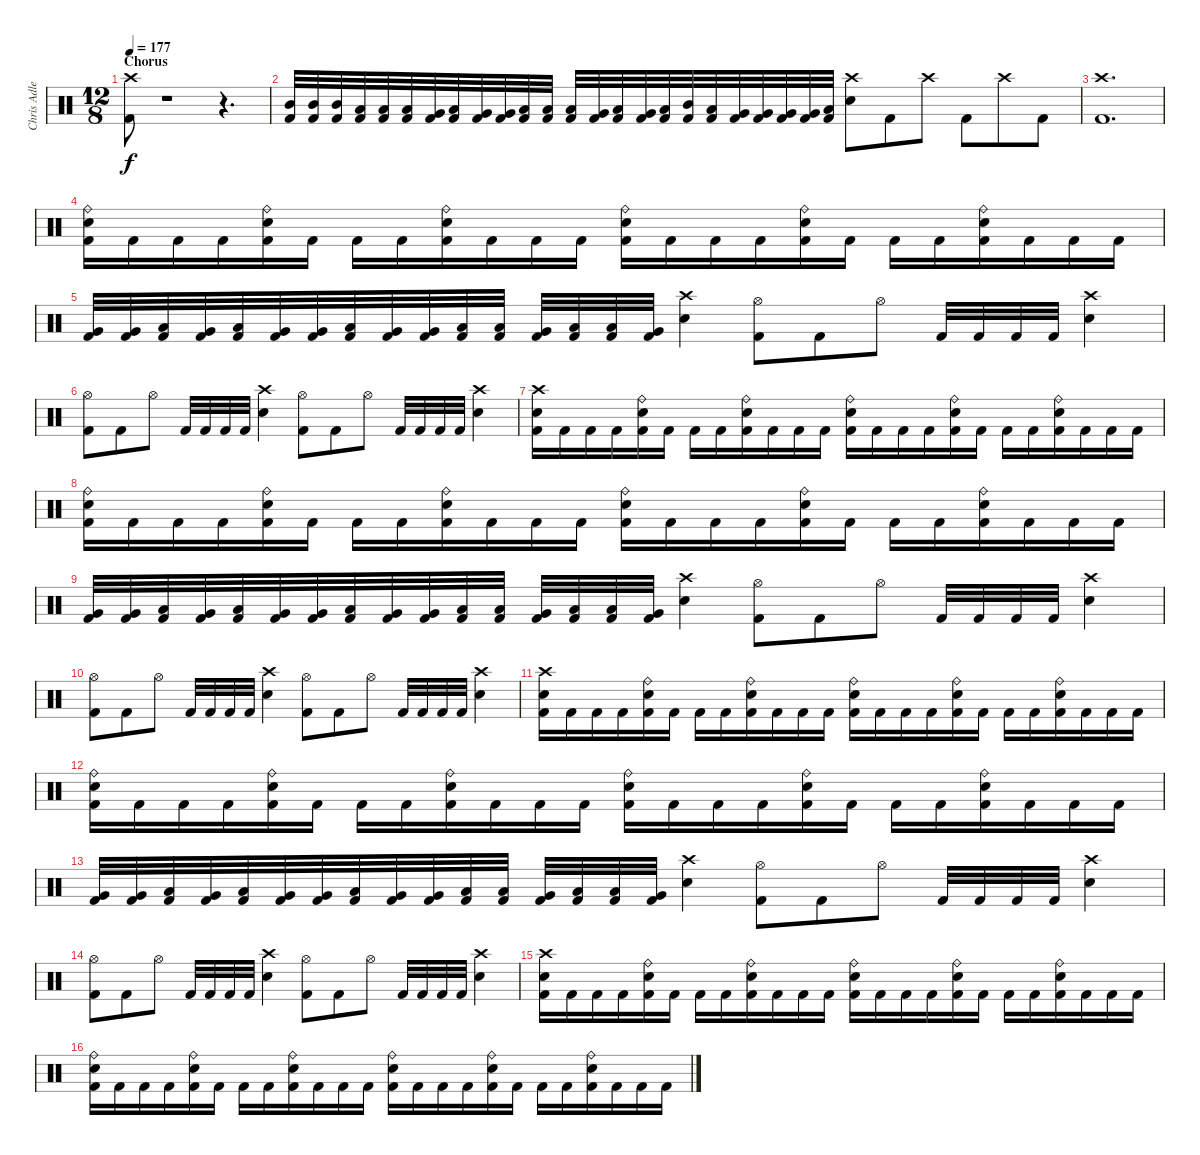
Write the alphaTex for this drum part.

\track ("Chris Adler" "Chris Adle") {instrument percussion}
\staff {score}
\articulation defaults
\ts (12 8)
\section ("" "Chorus")
\tempo 177
\clef neutral
\ks c
("Crash high (hit)" "Kick (hit) 2").8{dy f} r.1{volume 0} r.4{d} |
("Kick (hit) 2" "Mid Tom (hit)").32{volume 16} ("Kick (hit) 2" "Mid Tom (hit)").32 ("Kick (hit) 2" "Mid Tom (hit)").32 ("Kick (hit) 2" "Low Tom (hit)").32 ("Kick (hit) 2" "Low Tom (hit)").32 ("Kick (hit) 2" "Low Tom (hit)").32 ("Kick (hit) 2" "Very Low Tom (hit)").32 ("Kick (hit) 2" "Low Floor Tom (hit)").32 ("Kick (hit) 2" "Very Low Tom (hit)").32 ("Kick (hit) 2" "Very Low Tom (hit)").32 ("Kick (hit) 2" "Low Floor Tom (hit)").32 ("Kick (hit) 2" "Low Tom (hit)").32 ("Kick (hit) 2" "Low Floor Tom (hit)").32 ("Kick (hit) 2" "Very Low Tom (hit)").32 ("Kick (hit) 2" "Low Floor Tom (hit)").32 ("Kick (hit) 2" "Very Low Tom (hit)").32 ("Low Tom (hit)" "Kick (hit) 2").32 ("Mid Tom (hit)" "Kick (hit) 2").32 ("Low Tom (hit)" "Kick (hit) 2").32 ("Very Low Tom (hit)" "Kick (hit) 2").32 ("Very Low Tom (hit)" "Kick (hit) 2").32 ("Very Low Tom (hit)" "Kick (hit) 2").32 ("Very Low Tom (hit)" "Kick (hit) 2").32 ("Low Floor Tom (hit)" "Kick (hit) 2").32 ("Crash high (hit)" "Snare (hit) 2").8 "Kick (hit) 2".8 "Crash high (hit)".8 "Kick (hit) 2".8 "Crash high (hit)".8 "Kick (hit) 2".8 |
("Crash high (hit)" "Kick (hit) 2").1{d} |
("Ride (bell)" "Snare (hit) 2" "Kick (hit) 2").16 "Kick (hit) 2".16 "Kick (hit) 2".16 "Kick (hit) 2".16 ("Ride (bell)" "Snare (hit) 2" "Kick (hit) 2").16 "Kick (hit) 2".16 "Kick (hit) 2".16 "Kick (hit) 2".16 ("Ride (bell)" "Snare (hit) 2" "Kick (hit) 2").16 "Kick (hit) 2".16 "Kick (hit) 2".16 "Kick (hit) 2".16 ("Ride (bell)" "Snare (hit) 2" "Kick (hit) 2").16 "Kick (hit) 2".16 "Kick (hit) 2".16 "Kick (hit) 2".16 ("Ride (bell)" "Snare (hit) 2" "Kick (hit) 2").16 "Kick (hit) 2".16 "Kick (hit) 2".16 "Kick (hit) 2".16 ("Ride (bell)" "Snare (hit) 2" "Kick (hit) 2").16 "Kick (hit) 2".16 "Kick (hit) 2".16 "Kick (hit) 2".16 |
("Very Low Tom (hit)" "Kick (hit) 2").32 ("Very Low Tom (hit)" "Kick (hit) 2").32 ("Low Floor Tom (hit)" "Kick (hit) 2").32 ("Very Low Tom (hit)" "Kick (hit) 2").32 ("Low Tom (hit)" "Kick (hit) 2").32 ("Very Low Tom (hit)" "Kick (hit) 2").32 ("Very Low Tom (hit)" "Kick (hit) 2").32 ("Low Floor Tom (hit)" "Kick (hit) 2").32 ("Very Low Tom (hit)" "Kick (hit) 2").32 ("Very Low Tom (hit)" "Kick (hit) 2").32 ("Low Floor Tom (hit)" "Kick (hit) 2").32 ("Low Floor Tom (hit)" "Kick (hit) 2").32 ("Very Low Tom (hit)" "Kick (hit) 2").32 ("Low Floor Tom (hit)" "Kick (hit) 2").32 ("Low Tom (hit)" "Kick (hit) 2").32 ("Very Low Tom (hit)" "Kick (hit) 2").32 ("Crash high (hit)" "Electric Snare (hit)").4 ("Hi-Hat (open)" "Kick (hit) 2").8 "Kick (hit) 2".8 "Hi-Hat (open)".8 "Kick (hit) 2".32 "Kick (hit) 2".32 "Kick (hit) 2".32 "Kick (hit) 2".32 ("Crash high (hit)" "Snare (hit) 2").4 |
("Hi-Hat (open)" "Kick (hit) 2").8 "Kick (hit) 2".8 "Hi-Hat (open)".8 "Kick (hit) 2".32 "Kick (hit) 2".32 "Kick (hit) 2".32 "Kick (hit) 2".32 ("Crash high (hit)" "Snare (hit) 2").4 ("Hi-Hat (open)" "Kick (hit) 2").8 "Kick (hit) 2".8 "Hi-Hat (open)".8 "Kick (hit) 2".32 "Kick (hit) 2".32 "Kick (hit) 2".32 "Kick (hit) 2".32 ("Crash high (hit)" "Snare (hit) 2").4 |
("Crash high (hit)" "Snare (hit) 2" "Kick (hit) 2").16 "Kick (hit) 2".16 "Kick (hit) 2".16 "Kick (hit) 2".16 ("Ride (bell)" "Snare (hit) 2" "Kick (hit) 2").16 "Kick (hit) 2".16 "Kick (hit) 2".16 "Kick (hit) 2".16 ("Ride (bell)" "Snare (hit) 2" "Kick (hit) 2").16 "Kick (hit) 2".16 "Kick (hit) 2".16 "Kick (hit) 2".16 ("Ride (bell)" "Snare (hit) 2" "Kick (hit) 2").16 "Kick (hit) 2".16 "Kick (hit) 2".16 "Kick (hit) 2".16 ("Ride (bell)" "Snare (hit) 2" "Kick (hit) 2").16 "Kick (hit) 2".16 "Kick (hit) 2".16 "Kick (hit) 2".16 ("Ride (bell)" "Snare (hit) 2" "Kick (hit) 2").16 "Kick (hit) 2".16 "Kick (hit) 2".16 "Kick (hit) 2".16 |
("Ride (bell)" "Snare (hit) 2" "Kick (hit) 2").16 "Kick (hit) 2".16 "Kick (hit) 2".16 "Kick (hit) 2".16 ("Ride (bell)" "Snare (hit) 2" "Kick (hit) 2").16 "Kick (hit) 2".16 "Kick (hit) 2".16 "Kick (hit) 2".16 ("Ride (bell)" "Snare (hit) 2" "Kick (hit) 2").16 "Kick (hit) 2".16 "Kick (hit) 2".16 "Kick (hit) 2".16 ("Ride (bell)" "Snare (hit) 2" "Kick (hit) 2").16 "Kick (hit) 2".16 "Kick (hit) 2".16 "Kick (hit) 2".16 ("Ride (bell)" "Snare (hit) 2" "Kick (hit) 2").16 "Kick (hit) 2".16 "Kick (hit) 2".16 "Kick (hit) 2".16 ("Ride (bell)" "Snare (hit) 2" "Kick (hit) 2").16 "Kick (hit) 2".16 "Kick (hit) 2".16 "Kick (hit) 2".16 |
("Very Low Tom (hit)" "Kick (hit) 2").32 ("Very Low Tom (hit)" "Kick (hit) 2").32 ("Low Floor Tom (hit)" "Kick (hit) 2").32 ("Very Low Tom (hit)" "Kick (hit) 2").32 ("Low Tom (hit)" "Kick (hit) 2").32 ("Very Low Tom (hit)" "Kick (hit) 2").32 ("Very Low Tom (hit)" "Kick (hit) 2").32 ("Low Floor Tom (hit)" "Kick (hit) 2").32 ("Very Low Tom (hit)" "Kick (hit) 2").32 ("Very Low Tom (hit)" "Kick (hit) 2").32 ("Low Floor Tom (hit)" "Kick (hit) 2").32 ("Low Floor Tom (hit)" "Kick (hit) 2").32 ("Very Low Tom (hit)" "Kick (hit) 2").32 ("Low Floor Tom (hit)" "Kick (hit) 2").32 ("Low Tom (hit)" "Kick (hit) 2").32 ("Very Low Tom (hit)" "Kick (hit) 2").32 ("Crash high (hit)" "Electric Snare (hit)").4 ("Hi-Hat (open)" "Kick (hit) 2").8 "Kick (hit) 2".8 "Hi-Hat (open)".8 "Kick (hit) 2".32 "Kick (hit) 2".32 "Kick (hit) 2".32 "Kick (hit) 2".32 ("Crash high (hit)" "Snare (hit) 2").4 |
("Hi-Hat (open)" "Kick (hit) 2").8 "Kick (hit) 2".8 "Hi-Hat (open)".8 "Kick (hit) 2".32 "Kick (hit) 2".32 "Kick (hit) 2".32 "Kick (hit) 2".32 ("Crash high (hit)" "Snare (hit) 2").4 ("Hi-Hat (open)" "Kick (hit) 2").8 "Kick (hit) 2".8 "Hi-Hat (open)".8 "Kick (hit) 2".32 "Kick (hit) 2".32 "Kick (hit) 2".32 "Kick (hit) 2".32 ("Crash high (hit)" "Snare (hit) 2").4 |
("Crash high (hit)" "Snare (hit) 2" "Kick (hit) 2").16 "Kick (hit) 2".16 "Kick (hit) 2".16 "Kick (hit) 2".16 ("Ride (bell)" "Snare (hit) 2" "Kick (hit) 2").16 "Kick (hit) 2".16 "Kick (hit) 2".16 "Kick (hit) 2".16 ("Ride (bell)" "Snare (hit) 2" "Kick (hit) 2").16 "Kick (hit) 2".16 "Kick (hit) 2".16 "Kick (hit) 2".16 ("Ride (bell)" "Snare (hit) 2" "Kick (hit) 2").16 "Kick (hit) 2".16 "Kick (hit) 2".16 "Kick (hit) 2".16 ("Ride (bell)" "Snare (hit) 2" "Kick (hit) 2").16 "Kick (hit) 2".16 "Kick (hit) 2".16 "Kick (hit) 2".16 ("Ride (bell)" "Snare (hit) 2" "Kick (hit) 2").16 "Kick (hit) 2".16 "Kick (hit) 2".16 "Kick (hit) 2".16 |
("Ride (bell)" "Snare (hit) 2" "Kick (hit) 2").16 "Kick (hit) 2".16 "Kick (hit) 2".16 "Kick (hit) 2".16 ("Ride (bell)" "Snare (hit) 2" "Kick (hit) 2").16 "Kick (hit) 2".16 "Kick (hit) 2".16 "Kick (hit) 2".16 ("Ride (bell)" "Snare (hit) 2" "Kick (hit) 2").16 "Kick (hit) 2".16 "Kick (hit) 2".16 "Kick (hit) 2".16 ("Ride (bell)" "Snare (hit) 2" "Kick (hit) 2").16 "Kick (hit) 2".16 "Kick (hit) 2".16 "Kick (hit) 2".16 ("Ride (bell)" "Snare (hit) 2" "Kick (hit) 2").16 "Kick (hit) 2".16 "Kick (hit) 2".16 "Kick (hit) 2".16 ("Ride (bell)" "Snare (hit) 2" "Kick (hit) 2").16 "Kick (hit) 2".16 "Kick (hit) 2".16 "Kick (hit) 2".16 |
("Very Low Tom (hit)" "Kick (hit) 2").32 ("Very Low Tom (hit)" "Kick (hit) 2").32 ("Low Floor Tom (hit)" "Kick (hit) 2").32 ("Very Low Tom (hit)" "Kick (hit) 2").32 ("Low Tom (hit)" "Kick (hit) 2").32 ("Very Low Tom (hit)" "Kick (hit) 2").32 ("Very Low Tom (hit)" "Kick (hit) 2").32 ("Low Floor Tom (hit)" "Kick (hit) 2").32 ("Very Low Tom (hit)" "Kick (hit) 2").32 ("Very Low Tom (hit)" "Kick (hit) 2").32 ("Low Floor Tom (hit)" "Kick (hit) 2").32 ("Low Floor Tom (hit)" "Kick (hit) 2").32 ("Very Low Tom (hit)" "Kick (hit) 2").32 ("Low Floor Tom (hit)" "Kick (hit) 2").32 ("Low Tom (hit)" "Kick (hit) 2").32 ("Very Low Tom (hit)" "Kick (hit) 2").32 ("Crash high (hit)" "Electric Snare (hit)").4 ("Hi-Hat (open)" "Kick (hit) 2").8 "Kick (hit) 2".8 "Hi-Hat (open)".8 "Kick (hit) 2".32 "Kick (hit) 2".32 "Kick (hit) 2".32 "Kick (hit) 2".32 ("Crash high (hit)" "Snare (hit) 2").4 |
("Hi-Hat (open)" "Kick (hit) 2").8 "Kick (hit) 2".8 "Hi-Hat (open)".8 "Kick (hit) 2".32 "Kick (hit) 2".32 "Kick (hit) 2".32 "Kick (hit) 2".32 ("Crash high (hit)" "Snare (hit) 2").4 ("Hi-Hat (open)" "Kick (hit) 2").8 "Kick (hit) 2".8 "Hi-Hat (open)".8 "Kick (hit) 2".32 "Kick (hit) 2".32 "Kick (hit) 2".32 "Kick (hit) 2".32 ("Crash high (hit)" "Snare (hit) 2").4 |
("Crash high (hit)" "Snare (hit) 2" "Kick (hit) 2").16 "Kick (hit) 2".16 "Kick (hit) 2".16 "Kick (hit) 2".16 ("Ride (bell)" "Snare (hit) 2" "Kick (hit) 2").16 "Kick (hit) 2".16 "Kick (hit) 2".16 "Kick (hit) 2".16 ("Ride (bell)" "Snare (hit) 2" "Kick (hit) 2").16 "Kick (hit) 2".16 "Kick (hit) 2".16 "Kick (hit) 2".16 ("Ride (bell)" "Snare (hit) 2" "Kick (hit) 2").16 "Kick (hit) 2".16 "Kick (hit) 2".16 "Kick (hit) 2".16 ("Ride (bell)" "Snare (hit) 2" "Kick (hit) 2").16 "Kick (hit) 2".16 "Kick (hit) 2".16 "Kick (hit) 2".16 ("Ride (bell)" "Snare (hit) 2" "Kick (hit) 2").16 "Kick (hit) 2".16 "Kick (hit) 2".16 "Kick (hit) 2".16 |
("Ride (bell)" "Snare (hit) 2" "Kick (hit) 2").16 "Kick (hit) 2".16 "Kick (hit) 2".16 "Kick (hit) 2".16 ("Ride (bell)" "Snare (hit) 2" "Kick (hit) 2").16 "Kick (hit) 2".16 "Kick (hit) 2".16 "Kick (hit) 2".16 ("Ride (bell)" "Snare (hit) 2" "Kick (hit) 2").16 "Kick (hit) 2".16 "Kick (hit) 2".16 "Kick (hit) 2".16 ("Ride (bell)" "Snare (hit) 2" "Kick (hit) 2").16 "Kick (hit) 2".16 "Kick (hit) 2".16 "Kick (hit) 2".16 ("Ride (bell)" "Snare (hit) 2" "Kick (hit) 2").16 "Kick (hit) 2".16 "Kick (hit) 2".16 "Kick (hit) 2".16 ("Ride (bell)" "Snare (hit) 2" "Kick (hit) 2").16 "Kick (hit) 2".16 "Kick (hit) 2".16 "Kick (hit) 2".16
